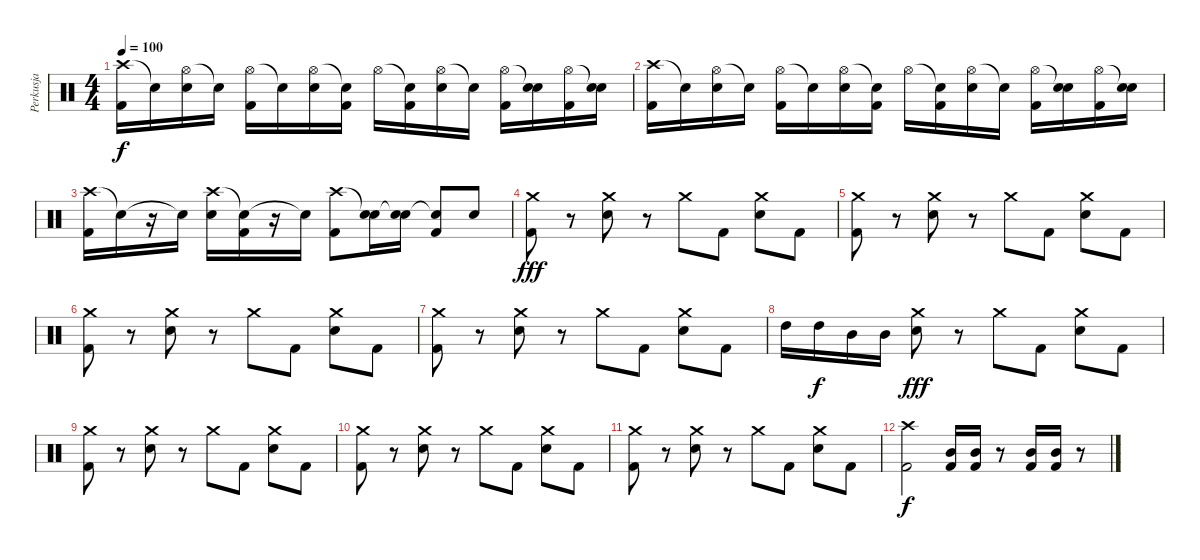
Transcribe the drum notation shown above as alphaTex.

\track ("Perkusja" "Perkusja") {instrument percussion}
\staff {score}
\articulation defaults
\ts (4 4)
\tempo 100
\clef neutral
\ks c
("Crash high (hit)" "Kick (hit) 2").16{dy f} "Snare (hit)"{t}.16 ("Hi-Hat (open)" "Snare (hit) 2").16 "Snare (hit)"{t}.16 ("Hi-Hat (open)" "Kick (hit) 2").16 "Snare (hit)"{t}.16 ("Hi-Hat (open)" "Snare (hit) 2").16 ("Snare (hit)"{t} "Kick (hit) 2").16 "Hi-Hat (open)".16 ("Snare (hit)"{t} "Kick (hit) 2").16 ("Hi-Hat (open)" "Snare (hit) 2").16 "Snare (hit)"{t}.16 ("Hi-Hat (open)" "Kick (hit) 2").16 ("Snare (hit)"{t} "Electric Snare (hit)").16 ("Hi-Hat (open)" "Kick (hit) 2").16 ("Snare (hit)"{t} "Electric Snare (hit)").16 |
("Crash high (hit)" "Kick (hit) 2").16 "Snare (hit)"{t}.16 ("Hi-Hat (open)" "Snare (hit) 2").16 "Snare (hit)"{t}.16 ("Hi-Hat (open)" "Kick (hit) 2").16 "Snare (hit)"{t}.16 ("Hi-Hat (open)" "Snare (hit) 2").16 ("Snare (hit)"{t} "Kick (hit) 2").16 "Hi-Hat (open)".16 ("Snare (hit)"{t} "Kick (hit) 2").16 ("Hi-Hat (open)" "Snare (hit) 2").16 "Snare (hit)"{t}.16 ("Hi-Hat (open)" "Kick (hit) 2").16 ("Snare (hit)"{t} "Electric Snare (hit)").16 ("Hi-Hat (open)" "Kick (hit) 2").16 ("Snare (hit)"{t} "Electric Snare (hit)").16 |
("Crash high (hit)" "Kick (hit) 2").16 "Snare (hit)"{t}.16 r.16 "Snare (hit)"{t}.16 ("Crash high (hit)" "Snare (hit) 2").16 ("Snare (hit)"{t} "Kick (hit) 2").16 r.16 "Snare (hit)"{t}.16 ("Crash high (hit)" "Kick (hit) 2").8 ("Snare (hit)"{t} "Snare (hit) 2").16 ("Snare (hit)"{t} "Snare (hit) 2").16 ("Snare (hit)"{t} "Kick (hit) 2").8 "Snare (hit) 2".8 |
("Kick (hit) 2" "Crash medium (hit)").8{dy fff} r.8 ("Crash medium (hit)" "Snare (hit) 2").8 r.8 "Crash medium (hit)".8 "Kick (hit) 2".8 ("Crash medium (hit)" "Snare (hit) 2").8 "Kick (hit) 2".8 |
("Kick (hit) 2" "Crash medium (hit)").8 r.8 ("Crash medium (hit)" "Snare (hit) 2").8 r.8 "Crash medium (hit)".8 "Kick (hit) 2".8 ("Crash medium (hit)" "Snare (hit) 2").8 "Kick (hit) 2".8 |
("Kick (hit) 2" "Crash medium (hit)").8 r.8 ("Crash medium (hit)" "Snare (hit) 2").8 r.8 "Crash medium (hit)".8 "Kick (hit) 2".8 ("Crash medium (hit)" "Snare (hit) 2").8 "Kick (hit) 2".8 |
("Kick (hit) 2" "Crash medium (hit)").8 r.8 ("Crash medium (hit)" "Snare (hit) 2").8 r.8 "Crash medium (hit)".8 "Kick (hit) 2".8 ("Crash medium (hit)" "Snare (hit) 2").8 "Kick (hit) 2".8 |
"High Tom (hit)".16 "High Tom (hit)".16{dy f} "Mid Tom (hit)".16 "Mid Tom (hit)".16 ("Crash medium (hit)" "Snare (hit) 2").8{dy fff} r.8 "Crash medium (hit)".8 "Kick (hit) 2".8 ("Crash medium (hit)" "Snare (hit) 2").8 "Kick (hit) 2".8 |
("Kick (hit) 2" "Crash medium (hit)").8 r.8 ("Crash medium (hit)" "Snare (hit) 2").8 r.8 "Crash medium (hit)".8 "Kick (hit) 2".8 ("Crash medium (hit)" "Snare (hit) 2").8 "Kick (hit) 2".8 |
("Kick (hit) 2" "Crash medium (hit)").8 r.8 ("Crash medium (hit)" "Snare (hit) 2").8 r.8 "Crash medium (hit)".8 "Kick (hit) 2".8 ("Crash medium (hit)" "Snare (hit) 2").8 "Kick (hit) 2".8 |
("Kick (hit) 2" "Crash medium (hit)").8 r.8 ("Crash medium (hit)" "Snare (hit) 2").8 r.8 "Crash medium (hit)".8 "Kick (hit) 2".8 ("Crash medium (hit)" "Snare (hit) 2").8 "Kick (hit) 2".8 |
("Crash high (hit)" "Kick (hit) 2").2{dy f} ("Mid Tom (hit)" "Kick (hit) 2").16 ("Mid Tom (hit)" "Kick (hit) 2").16 r.8 ("Mid Tom (hit)" "Kick (hit) 2").16 ("Mid Tom (hit)" "Kick (hit) 2").16 r.8
